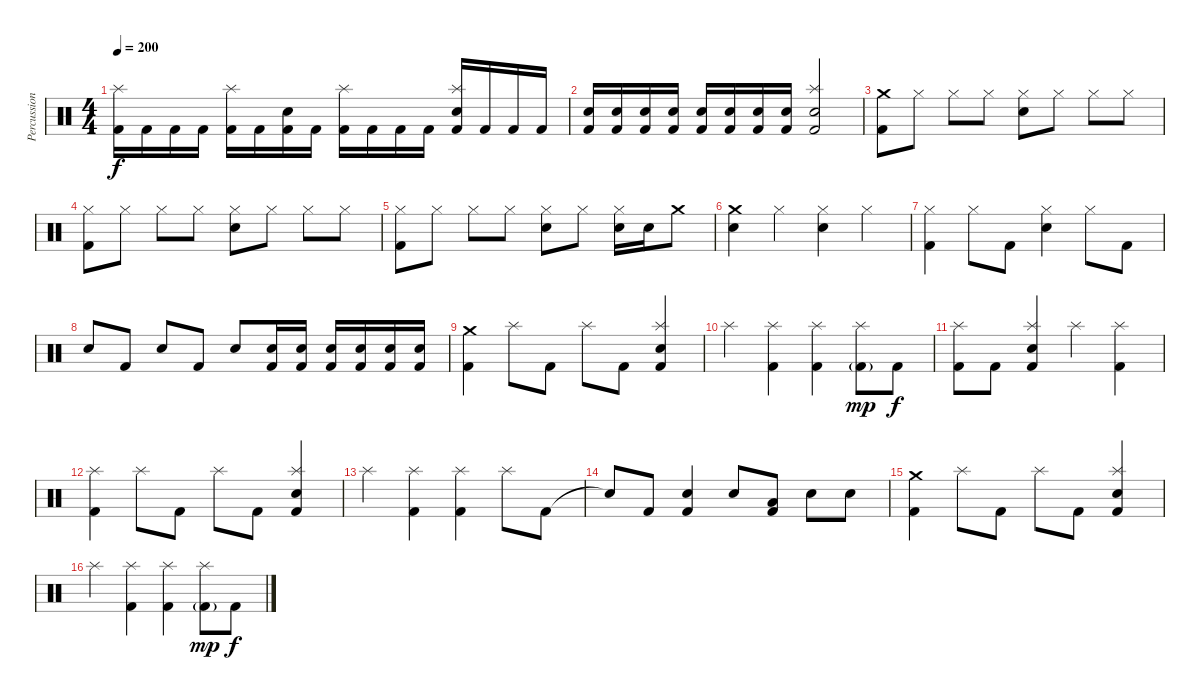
\track ("Percussion" "Percussion") {instrument percussion}
\staff {score}
\articulation defaults
\ts (4 4)
\tempo 200
\clef neutral
\ks c
("Kick (hit) 2" "Splash (hit)").16{dy f} "Kick (hit) 2".16 "Kick (hit) 2".16 "Kick (hit) 2".16 ("Kick (hit) 2" "Splash (hit)").16 "Kick (hit) 2".16 ("Kick (hit) 2" "Snare (hit) 2").16 "Kick (hit) 2".16 ("Kick (hit) 2" "Splash (hit)").16 "Kick (hit) 2".16 "Kick (hit) 2".16 "Kick (hit) 2".16 ("Kick (hit) 2" "Splash (hit)" "Snare (hit) 2").16 "Kick (hit) 2".16 "Kick (hit) 2".16 "Kick (hit) 2".16 |
("Kick (hit) 2" "Snare (hit) 2").16 ("Kick (hit) 2" "Snare (hit) 2").16 ("Kick (hit) 2" "Snare (hit) 2").16 ("Kick (hit) 2" "Snare (hit) 2").16 ("Kick (hit) 2" "Snare (hit) 2").16 ("Kick (hit) 2" "Snare (hit) 2").16 ("Kick (hit) 2" "Snare (hit) 2").16 ("Kick (hit) 2" "Snare (hit) 2").16 ("Kick (hit) 2" "Snare (hit) 2" "Splash (hit)").2 |
("Kick (hit) 2" "Crash medium (hit)").8 "Hi-Hat (closed)".8 "Hi-Hat (closed)".8 "Hi-Hat (closed)".8 ("Snare (hit) 2" "Hi-Hat (closed)").8 "Hi-Hat (closed)".8 "Hi-Hat (closed)".8 "Hi-Hat (closed)".8 |
("Kick (hit) 2" "Hi-Hat (closed)").8 "Hi-Hat (closed)".8 "Hi-Hat (closed)".8 "Hi-Hat (closed)".8 ("Snare (hit) 2" "Hi-Hat (closed)").8 "Hi-Hat (closed)".8 "Hi-Hat (closed)".8 "Hi-Hat (closed)".8 |
("Kick (hit) 2" "Hi-Hat (closed)").8 "Hi-Hat (closed)".8 "Hi-Hat (closed)".8 "Hi-Hat (closed)".8 ("Snare (hit) 2" "Hi-Hat (closed)").8 "Hi-Hat (closed)".8 ("Snare (hit) 2" "Hi-Hat (closed)").16 "Snare (hit) 2".16 "Crash medium (hit)".8 |
("Snare (hit) 2" "Crash medium (hit)").4 "Hi-Hat (closed)".4 ("Snare (hit) 2" "Hi-Hat (closed)").4 "Hi-Hat (closed)".4 |
("Kick (hit) 2" "Hi-Hat (closed)").4 "Hi-Hat (closed)".8 "Kick (hit) 2".8 ("Snare (hit) 2" "Hi-Hat (closed)").4 "Hi-Hat (closed)".8 "Kick (hit) 2".8 |
"Snare (hit) 2".8 "Kick (hit) 2".8 "Snare (hit) 2".8 "Kick (hit) 2".8 "Snare (hit) 2".8 ("Kick (hit) 2" "Snare (hit) 2").16 ("Kick (hit) 2" "Snare (hit) 2").16 ("Kick (hit) 2" "Snare (hit) 2").16 ("Kick (hit) 2" "Snare (hit) 2").16 ("Kick (hit) 2" "Snare (hit) 2").16 ("Kick (hit) 2" "Snare (hit) 2").16 |
("Kick (hit) 2" "Crash medium (hit)").4 "Splash (hit)".8 "Kick (hit) 2".8 "Splash (hit)".8 "Kick (hit) 2".8 ("Kick (hit) 2" "Splash (hit)" "Snare (hit) 2").4 |
"Splash (hit)".4 ("Kick (hit) 2" "Splash (hit)").4 ("Kick (hit) 2" "Splash (hit)").4 ("Kick (hit) 2"{g} "Splash (hit)").8{dy mp} "Kick (hit) 2".8{dy f} |
("Kick (hit) 2" "Splash (hit)").8 "Kick (hit) 2".8 ("Kick (hit) 2" "Snare (hit) 2" "Splash (hit)").4 "Splash (hit)".4 ("Kick (hit) 2" "Splash (hit)").4 |
("Kick (hit) 2" "Splash (hit)").4 "Splash (hit)".8 "Kick (hit) 2".8 "Splash (hit)".8 "Kick (hit) 2".8 ("Kick (hit) 2" "Splash (hit)" "Snare (hit) 2").4 |
"Splash (hit)".4 ("Kick (hit) 2" "Splash (hit)").4 ("Kick (hit) 2" "Splash (hit)").4 "Splash (hit)".8 "Kick (hit) 2".8 |
"Snare (hit)"{t}.8 "Kick (hit) 2".8 ("Kick (hit) 2" "Snare (hit) 2").4 "Snare (hit) 2".8 ("Kick (hit) 2" "Low Tom (hit)").8 "Snare (hit) 2".8 "Snare (hit) 2".8 |
("Kick (hit) 2" "Crash medium (hit)").4 "Splash (hit)".8 "Kick (hit) 2".8 "Splash (hit)".8 "Kick (hit) 2".8 ("Kick (hit) 2" "Splash (hit)" "Snare (hit) 2").4 |
"Splash (hit)".4 ("Kick (hit) 2" "Splash (hit)").4 ("Kick (hit) 2" "Splash (hit)").4 ("Kick (hit) 2"{g} "Splash (hit)").8{dy mp} "Kick (hit) 2".8{dy f}
